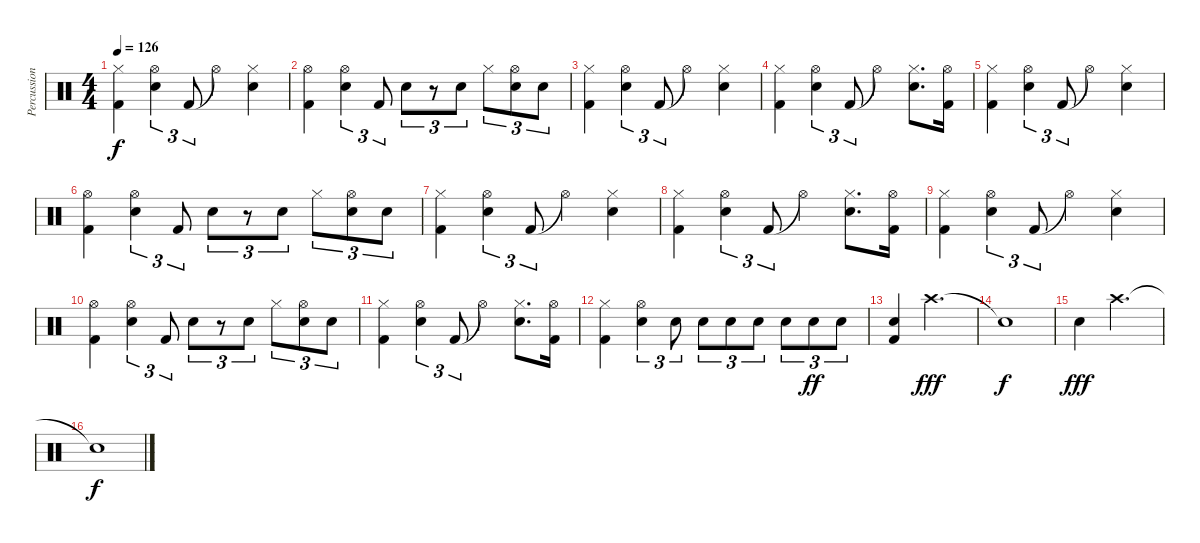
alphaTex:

\track ("Percussion" "Percussion") {instrument percussion}
\staff {score}
\articulation defaults
\ts (4 4)
\tempo 126
\clef neutral
\ks c
("Hi-Hat (closed)" "Kick (hit) 2").4{dy f} ("Hi-Hat (open)" "Snare (hit) 2").4{tu (3 2)} "Kick (hit) 2".8{tu (3 2)} "Hi-Hat (open)"{t}.4 ("Hi-Hat (closed)" "Snare (hit) 2").4 |
("Hi-Hat (open)" "Kick (hit) 2").4 ("Hi-Hat (open)" "Snare (hit) 2").4{tu (3 2)} "Kick (hit) 2".8{tu (3 2)} "Snare (hit) 2".8{tu (3 2)} r.8{tu (3 2)} "Snare (hit) 2".8{tu (3 2)} "Hi-Hat (closed)".8{tu (3 2)} ("Hi-Hat (open)" "Snare (hit) 2").8{tu (3 2)} "Snare (hit) 2".8{tu (3 2)} |
("Hi-Hat (closed)" "Kick (hit) 2").4 ("Hi-Hat (open)" "Snare (hit) 2").4{tu (3 2)} "Kick (hit) 2".8{tu (3 2)} "Hi-Hat (open)"{t}.4 ("Hi-Hat (closed)" "Snare (hit) 2").4 |
("Hi-Hat (closed)" "Kick (hit) 2").4 ("Hi-Hat (open)" "Snare (hit) 2").4{tu (3 2)} "Kick (hit) 2".8{tu (3 2)} "Hi-Hat (open)"{t}.4 ("Hi-Hat (closed)" "Snare (hit) 2").8{d} ("Hi-Hat (open)" "Kick (hit) 2").16 |
("Hi-Hat (closed)" "Kick (hit) 2").4 ("Hi-Hat (open)" "Snare (hit) 2").4{tu (3 2)} "Kick (hit) 2".8{tu (3 2)} "Hi-Hat (open)"{t}.4 ("Hi-Hat (closed)" "Snare (hit) 2").4 |
("Hi-Hat (open)" "Kick (hit) 2").4 ("Hi-Hat (open)" "Snare (hit) 2").4{tu (3 2)} "Kick (hit) 2".8{tu (3 2)} "Snare (hit) 2".8{tu (3 2)} r.8{tu (3 2)} "Snare (hit) 2".8{tu (3 2)} "Hi-Hat (closed)".8{tu (3 2)} ("Hi-Hat (open)" "Snare (hit) 2").8{tu (3 2)} "Snare (hit) 2".8{tu (3 2)} |
("Hi-Hat (closed)" "Kick (hit) 2").4 ("Hi-Hat (open)" "Snare (hit) 2").4{tu (3 2)} "Kick (hit) 2".8{tu (3 2)} "Hi-Hat (open)"{t}.4 ("Hi-Hat (closed)" "Snare (hit) 2").4 |
("Hi-Hat (closed)" "Kick (hit) 2").4 ("Hi-Hat (open)" "Snare (hit) 2").4{tu (3 2)} "Kick (hit) 2".8{tu (3 2)} "Hi-Hat (open)"{t}.4 ("Hi-Hat (closed)" "Snare (hit) 2").8{d} ("Hi-Hat (open)" "Kick (hit) 2").16 |
("Hi-Hat (closed)" "Kick (hit) 2").4 ("Hi-Hat (open)" "Snare (hit) 2").4{tu (3 2)} "Kick (hit) 2".8{tu (3 2)} "Hi-Hat (open)"{t}.4 ("Hi-Hat (closed)" "Snare (hit) 2").4 |
("Hi-Hat (open)" "Kick (hit) 2").4 ("Hi-Hat (open)" "Snare (hit) 2").4{tu (3 2)} "Kick (hit) 2".8{tu (3 2)} "Snare (hit) 2".8{tu (3 2)} r.8{tu (3 2)} "Snare (hit) 2".8{tu (3 2)} "Hi-Hat (closed)".8{tu (3 2)} ("Hi-Hat (open)" "Snare (hit) 2").8{tu (3 2)} "Snare (hit) 2".8{tu (3 2)} |
("Hi-Hat (closed)" "Kick (hit) 2").4 ("Hi-Hat (open)" "Snare (hit) 2").4{tu (3 2)} "Kick (hit) 2".8{tu (3 2)} "Hi-Hat (open)"{t}.4 ("Hi-Hat (closed)" "Snare (hit) 2").8{d} ("Hi-Hat (open)" "Kick (hit) 2").16 |
("Hi-Hat (closed)" "Kick (hit) 2").4 ("Hi-Hat (open)" "Snare (hit) 2").4{tu (3 2)} "Snare (hit) 2".8{tu (3 2)} "Electric Snare (hit)".8{tu (3 2)} "Electric Snare (hit)".8{tu (3 2)} "Electric Snare (hit)".8{tu (3 2)} "Electric Snare (hit)".8{tu (3 2)} "Electric Snare (hit)".8{tu (3 2) dy ff} "Electric Snare (hit)".8{tu (3 2)} |
("Electric Snare (hit)" "Kick (hit) 2").4 "Crash high (hit)".2{d dy fff} |
"Snare (hit)"{t}.1{dy f} |
"Electric Snare (hit)".4{dy fff} "Crash high (hit)".2{d} |
"Snare (hit)"{t}.1{dy f}
